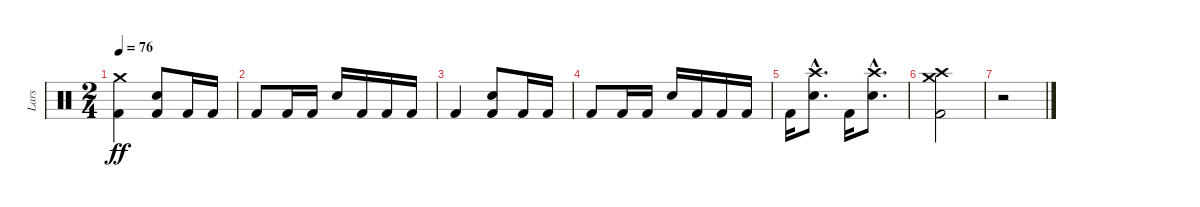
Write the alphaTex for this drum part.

\track ("Lars" "Lars") {instrument percussion}
\staff {score}
\articulation defaults
\ts (2 4)
\tempo 76
\clef neutral
\ks c
("Crash medium (hit)" "Kick (hit) 2").4{dy ff} ("Snare (hit) 2" "Kick (hit) 2").8 "Kick (hit) 2".16 "Kick (hit) 2".16 |
"Kick (hit) 2".8 "Kick (hit) 2".16 "Kick (hit) 2".16 "Snare (hit) 2".16 "Kick (hit) 2".16 "Kick (hit) 2".16 "Kick (hit) 2".16 |
"Kick (hit) 2".4 ("Snare (hit) 2" "Kick (hit) 2").8 "Kick (hit) 2".16 "Kick (hit) 2".16 |
"Kick (hit) 2".8 "Kick (hit) 2".16 "Kick (hit) 2".16 "Snare (hit) 2".16 "Kick (hit) 2".16 "Kick (hit) 2".16 "Kick (hit) 2".16 |
"Kick (hit) 2".16 ("Crash high (hit)"{hac} "Snare (hit) 2"{hac}).8{d} "Kick (hit) 2".16 ("Crash high (hit)"{hac} "Snare (hit) 2"{hac}).8{d} |
("Crash medium (hit)" "Crash high (hit)" "Kick (hit) 2").2 |
r.2
